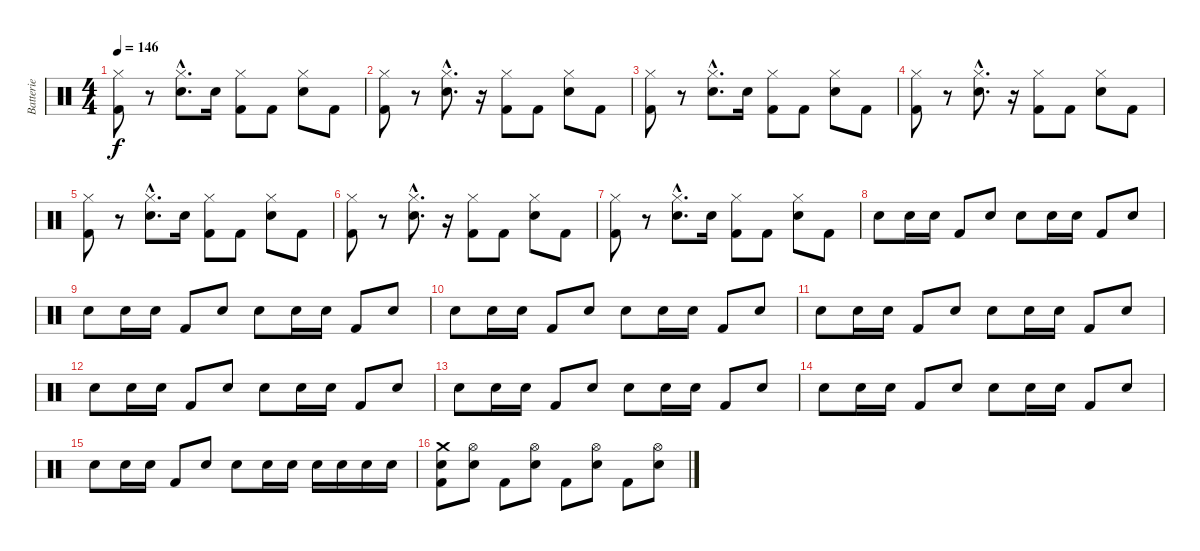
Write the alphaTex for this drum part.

\track ("Batterie" "Batterie") {instrument percussion}
\staff {score}
\articulation defaults
\ts (4 4)
\tempo 146
\clef neutral
\ks c
("Hi-Hat (closed)" "Kick (hit) 2").8{dy f} r.8 ("Hi-Hat (closed)"{hac} "Snare (hit) 2"{hac}).8{d} "Snare (hit) 2".16 ("Hi-Hat (closed)" "Kick (hit) 2").8 "Kick (hit) 2".8 ("Hi-Hat (closed)" "Snare (hit) 2").8 "Kick (hit) 2".8 |
("Hi-Hat (closed)" "Kick (hit) 2").8 r.8 ("Hi-Hat (closed)"{hac} "Snare (hit) 2"{hac}).8{d} r.16 ("Hi-Hat (closed)" "Kick (hit) 2").8 "Kick (hit) 2".8 ("Hi-Hat (closed)" "Snare (hit) 2").8 "Kick (hit) 2".8 |
("Hi-Hat (closed)" "Kick (hit) 2").8 r.8 ("Hi-Hat (closed)"{hac} "Snare (hit) 2"{hac}).8{d} "Snare (hit) 2".16 ("Hi-Hat (closed)" "Kick (hit) 2").8 "Kick (hit) 2".8 ("Hi-Hat (closed)" "Snare (hit) 2").8 "Kick (hit) 2".8 |
("Hi-Hat (closed)" "Kick (hit) 2").8 r.8 ("Hi-Hat (closed)"{hac} "Snare (hit) 2"{hac}).8{d} r.16 ("Hi-Hat (closed)" "Kick (hit) 2").8 "Kick (hit) 2".8 ("Hi-Hat (closed)" "Snare (hit) 2").8 "Kick (hit) 2".8 |
("Hi-Hat (closed)" "Kick (hit) 2").8 r.8 ("Hi-Hat (closed)"{hac} "Snare (hit) 2"{hac}).8{d} "Snare (hit) 2".16 ("Hi-Hat (closed)" "Kick (hit) 2").8 "Kick (hit) 2".8 ("Hi-Hat (closed)" "Snare (hit) 2").8 "Kick (hit) 2".8 |
("Hi-Hat (closed)" "Kick (hit) 2").8 r.8 ("Hi-Hat (closed)"{hac} "Snare (hit) 2"{hac}).8{d} r.16 ("Hi-Hat (closed)" "Kick (hit) 2").8 "Kick (hit) 2".8 ("Hi-Hat (closed)" "Snare (hit) 2").8 "Kick (hit) 2".8 |
("Hi-Hat (closed)" "Kick (hit) 2").8 r.8 ("Hi-Hat (closed)"{hac} "Snare (hit) 2"{hac}).8{d} "Snare (hit) 2".16 ("Hi-Hat (closed)" "Kick (hit) 2").8 "Kick (hit) 2".8 ("Hi-Hat (closed)" "Snare (hit) 2").8 "Kick (hit) 2".8 |
"Electric Snare (hit)".8 "Electric Snare (hit)".16 "Electric Snare (hit)".16 "Kick (hit) 2".8 "Electric Snare (hit)".8 "Electric Snare (hit)".8 "Electric Snare (hit)".16 "Electric Snare (hit)".16 "Kick (hit) 2".8 "Electric Snare (hit)".8 |
"Electric Snare (hit)".8 "Electric Snare (hit)".16 "Electric Snare (hit)".16 "Kick (hit) 2".8 "Electric Snare (hit)".8 "Electric Snare (hit)".8 "Electric Snare (hit)".16 "Electric Snare (hit)".16 "Kick (hit) 2".8 "Electric Snare (hit)".8 |
"Electric Snare (hit)".8 "Electric Snare (hit)".16 "Electric Snare (hit)".16 "Kick (hit) 2".8 "Electric Snare (hit)".8 "Electric Snare (hit)".8 "Electric Snare (hit)".16 "Electric Snare (hit)".16 "Kick (hit) 2".8 "Electric Snare (hit)".8 |
"Electric Snare (hit)".8 "Electric Snare (hit)".16 "Electric Snare (hit)".16 "Kick (hit) 2".8 "Electric Snare (hit)".8 "Electric Snare (hit)".8 "Electric Snare (hit)".16 "Electric Snare (hit)".16 "Kick (hit) 2".8 "Electric Snare (hit)".8 |
"Electric Snare (hit)".8 "Electric Snare (hit)".16 "Electric Snare (hit)".16 "Kick (hit) 2".8 "Electric Snare (hit)".8 "Electric Snare (hit)".8 "Electric Snare (hit)".16 "Electric Snare (hit)".16 "Kick (hit) 2".8 "Electric Snare (hit)".8 |
"Electric Snare (hit)".8 "Electric Snare (hit)".16 "Electric Snare (hit)".16 "Kick (hit) 2".8 "Electric Snare (hit)".8 "Electric Snare (hit)".8 "Electric Snare (hit)".16 "Electric Snare (hit)".16 "Kick (hit) 2".8 "Electric Snare (hit)".8 |
"Electric Snare (hit)".8 "Electric Snare (hit)".16 "Electric Snare (hit)".16 "Kick (hit) 2".8 "Electric Snare (hit)".8 "Electric Snare (hit)".8 "Electric Snare (hit)".16 "Electric Snare (hit)".16 "Kick (hit) 2".8 "Electric Snare (hit)".8 |
"Electric Snare (hit)".8 "Electric Snare (hit)".16 "Electric Snare (hit)".16 "Kick (hit) 2".8 "Electric Snare (hit)".8 "Electric Snare (hit)".8 "Electric Snare (hit)".16 "Electric Snare (hit)".16 "Electric Snare (hit)".16 "Electric Snare (hit)".16 "Electric Snare (hit)".16 "Electric Snare (hit)".16 |
("Kick (hit) 2" "Electric Snare (hit)" "Crash medium (hit)").8 ("Electric Snare (hit)" "Hi-Hat (open)").8 "Kick (hit) 2".8 ("Electric Snare (hit)" "Hi-Hat (open)").8 "Kick (hit) 2".8 ("Electric Snare (hit)" "Hi-Hat (open)").8 "Kick (hit) 2".8 ("Electric Snare (hit)" "Hi-Hat (open)").8
